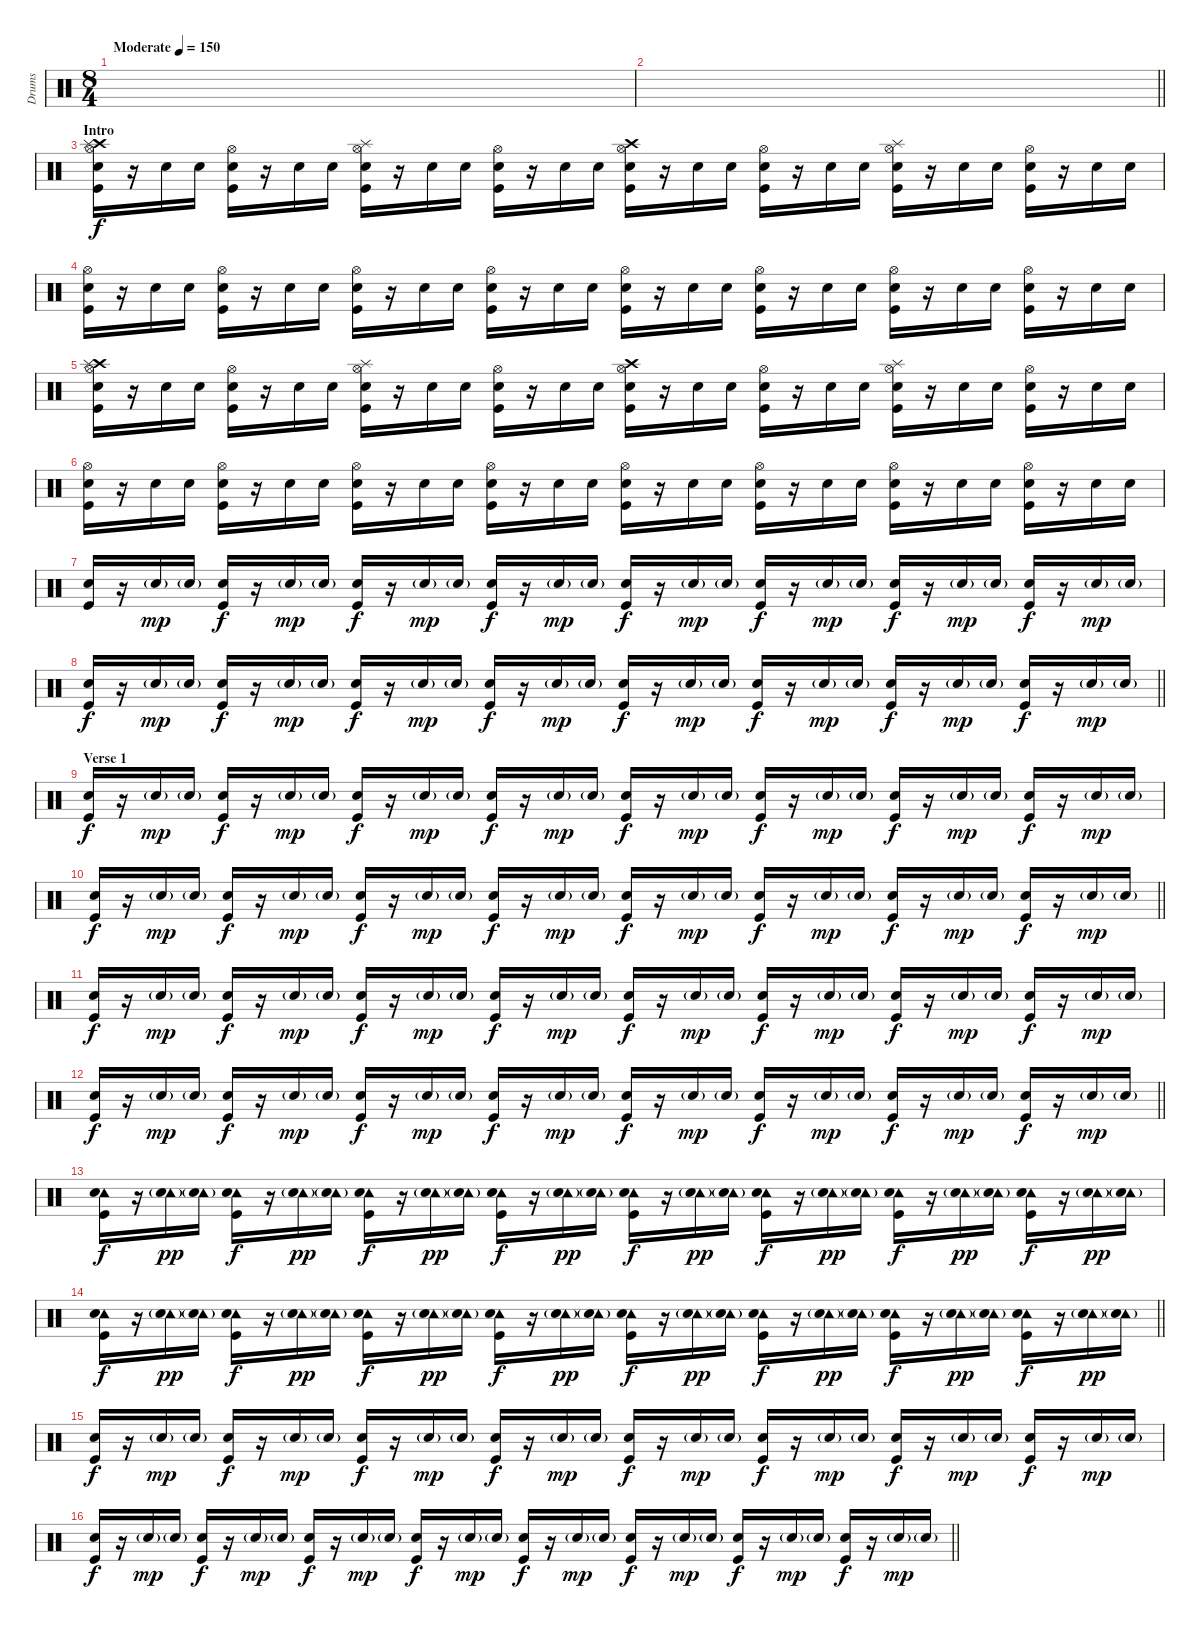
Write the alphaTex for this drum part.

\track ("Drums" "Drums") {instrument percussion}
\staff {score}
\articulation defaults
\ts (8 4)
\tempo (150 "Moderate")
\clef neutral
\ks c
|
\barLineRight lightlight
|
\section ("" "Intro")
("Crash high (hit)" "Splash (hit)" "Hi-Hat (open)" "Electric Snare (hit)" "Kick (hit)").16 r.16 "Electric Snare (hit)".16 "Electric Snare (hit)".16 ("Hi-Hat (open)" "Electric Snare (hit)" "Kick (hit)").16 r.16 "Electric Snare (hit)".16 "Electric Snare (hit)".16 ("Splash (hit)" "Hi-Hat (open)" "Electric Snare (hit)" "Kick (hit)").16 r.16 "Electric Snare (hit)".16 "Electric Snare (hit)".16 ("Hi-Hat (open)" "Electric Snare (hit)" "Kick (hit)").16 r.16 "Electric Snare (hit)".16 "Electric Snare (hit)".16 ("Crash high (hit)" "Hi-Hat (open)" "Electric Snare (hit)" "Kick (hit)").16 r.16 "Electric Snare (hit)".16 "Electric Snare (hit)".16 ("Hi-Hat (open)" "Electric Snare (hit)" "Kick (hit)").16 r.16 "Electric Snare (hit)".16 "Electric Snare (hit)".16 ("Splash (hit)" "Hi-Hat (open)" "Electric Snare (hit)" "Kick (hit)").16 r.16 "Electric Snare (hit)".16 "Electric Snare (hit)".16 ("Hi-Hat (open)" "Electric Snare (hit)" "Kick (hit)").16 r.16 "Electric Snare (hit)".16 "Electric Snare (hit)".16 |
("Hi-Hat (open)" "Electric Snare (hit)" "Kick (hit)").16 r.16 "Electric Snare (hit)".16 "Electric Snare (hit)".16 ("Hi-Hat (open)" "Electric Snare (hit)" "Kick (hit)").16 r.16 "Electric Snare (hit)".16 "Electric Snare (hit)".16 ("Hi-Hat (open)" "Electric Snare (hit)" "Kick (hit)").16 r.16 "Electric Snare (hit)".16 "Electric Snare (hit)".16 ("Hi-Hat (open)" "Electric Snare (hit)" "Kick (hit)").16 r.16 "Electric Snare (hit)".16 "Electric Snare (hit)".16 ("Hi-Hat (open)" "Electric Snare (hit)" "Kick (hit)").16 r.16 "Electric Snare (hit)".16 "Electric Snare (hit)".16 ("Hi-Hat (open)" "Electric Snare (hit)" "Kick (hit)").16 r.16 "Electric Snare (hit)".16 "Electric Snare (hit)".16 ("Hi-Hat (open)" "Electric Snare (hit)" "Kick (hit)").16 r.16 "Electric Snare (hit)".16 "Electric Snare (hit)".16 ("Hi-Hat (open)" "Electric Snare (hit)" "Kick (hit)").16 r.16 "Electric Snare (hit)".16 "Electric Snare (hit)".16 |
("Crash high (hit)" "Splash (hit)" "Hi-Hat (open)" "Electric Snare (hit)" "Kick (hit)").16 r.16 "Electric Snare (hit)".16 "Electric Snare (hit)".16 ("Hi-Hat (open)" "Electric Snare (hit)" "Kick (hit)").16 r.16 "Electric Snare (hit)".16 "Electric Snare (hit)".16 ("Splash (hit)" "Hi-Hat (open)" "Electric Snare (hit)" "Kick (hit)").16 r.16 "Electric Snare (hit)".16 "Electric Snare (hit)".16 ("Hi-Hat (open)" "Electric Snare (hit)" "Kick (hit)").16 r.16 "Electric Snare (hit)".16 "Electric Snare (hit)".16 ("Crash high (hit)" "Hi-Hat (open)" "Electric Snare (hit)" "Kick (hit)").16 r.16 "Electric Snare (hit)".16 "Electric Snare (hit)".16 ("Hi-Hat (open)" "Electric Snare (hit)" "Kick (hit)").16 r.16 "Electric Snare (hit)".16 "Electric Snare (hit)".16 ("Splash (hit)" "Hi-Hat (open)" "Electric Snare (hit)" "Kick (hit)").16 r.16 "Electric Snare (hit)".16 "Electric Snare (hit)".16 ("Hi-Hat (open)" "Electric Snare (hit)" "Kick (hit)").16 r.16 "Electric Snare (hit)".16 "Electric Snare (hit)".16 |
("Hi-Hat (open)" "Electric Snare (hit)" "Kick (hit)").16 r.16 "Electric Snare (hit)".16 "Electric Snare (hit)".16 ("Hi-Hat (open)" "Electric Snare (hit)" "Kick (hit)").16 r.16 "Electric Snare (hit)".16 "Electric Snare (hit)".16 ("Hi-Hat (open)" "Electric Snare (hit)" "Kick (hit)").16 r.16 "Electric Snare (hit)".16 "Electric Snare (hit)".16 ("Hi-Hat (open)" "Electric Snare (hit)" "Kick (hit)").16 r.16 "Electric Snare (hit)".16 "Electric Snare (hit)".16 ("Hi-Hat (open)" "Electric Snare (hit)" "Kick (hit)").16 r.16 "Electric Snare (hit)".16 "Electric Snare (hit)".16 ("Hi-Hat (open)" "Electric Snare (hit)" "Kick (hit)").16 r.16 "Electric Snare (hit)".16 "Electric Snare (hit)".16 ("Hi-Hat (open)" "Electric Snare (hit)" "Kick (hit)").16 r.16 "Electric Snare (hit)".16 "Electric Snare (hit)".16 ("Hi-Hat (open)" "Electric Snare (hit)" "Kick (hit)").16 r.16 "Electric Snare (hit)".16 "Electric Snare (hit)".16 |
("Electric Snare (hit)" "Kick (hit)").16 r.16 "Electric Snare (hit)"{g}.16{dy mp} "Electric Snare (hit)"{g}.16 ("Electric Snare (hit)" "Kick (hit)").16{dy f} r.16 "Electric Snare (hit)"{g}.16{dy mp} "Electric Snare (hit)"{g}.16 ("Electric Snare (hit)" "Kick (hit)").16{dy f} r.16 "Electric Snare (hit)"{g}.16{dy mp} "Electric Snare (hit)"{g}.16 ("Electric Snare (hit)" "Kick (hit)").16{dy f} r.16 "Electric Snare (hit)"{g}.16{dy mp} "Electric Snare (hit)"{g}.16 ("Electric Snare (hit)" "Kick (hit)").16{dy f} r.16 "Electric Snare (hit)"{g}.16{dy mp} "Electric Snare (hit)"{g}.16 ("Electric Snare (hit)" "Kick (hit)").16{dy f} r.16 "Electric Snare (hit)"{g}.16{dy mp} "Electric Snare (hit)"{g}.16 ("Electric Snare (hit)" "Kick (hit)").16{dy f} r.16 "Electric Snare (hit)"{g}.16{dy mp} "Electric Snare (hit)"{g}.16 ("Electric Snare (hit)" "Kick (hit)").16{dy f} r.16 "Electric Snare (hit)"{g}.16{dy mp} "Electric Snare (hit)"{g}.16 |
\barLineRight lightlight
("Electric Snare (hit)" "Kick (hit)").16{dy f} r.16 "Electric Snare (hit)"{g}.16{dy mp} "Electric Snare (hit)"{g}.16 ("Electric Snare (hit)" "Kick (hit)").16{dy f} r.16 "Electric Snare (hit)"{g}.16{dy mp} "Electric Snare (hit)"{g}.16 ("Electric Snare (hit)" "Kick (hit)").16{dy f} r.16 "Electric Snare (hit)"{g}.16{dy mp} "Electric Snare (hit)"{g}.16 ("Electric Snare (hit)" "Kick (hit)").16{dy f} r.16 "Electric Snare (hit)"{g}.16{dy mp} "Electric Snare (hit)"{g}.16 ("Electric Snare (hit)" "Kick (hit)").16{dy f} r.16 "Electric Snare (hit)"{g}.16{dy mp} "Electric Snare (hit)"{g}.16 ("Electric Snare (hit)" "Kick (hit)").16{dy f} r.16 "Electric Snare (hit)"{g}.16{dy mp} "Electric Snare (hit)"{g}.16 ("Electric Snare (hit)" "Kick (hit)").16{dy f} r.16 "Electric Snare (hit)"{g}.16{dy mp} "Electric Snare (hit)"{g}.16 ("Electric Snare (hit)" "Kick (hit)").16{dy f} r.16 "Electric Snare (hit)"{g}.16{dy mp} "Electric Snare (hit)"{g}.16 |
\section ("" "Verse 1")
("Electric Snare (hit)" "Kick (hit)").16{dy f} r.16 "Electric Snare (hit)"{g}.16{dy mp} "Electric Snare (hit)"{g}.16 ("Electric Snare (hit)" "Kick (hit)").16{dy f} r.16 "Electric Snare (hit)"{g}.16{dy mp} "Electric Snare (hit)"{g}.16 ("Electric Snare (hit)" "Kick (hit)").16{dy f} r.16 "Electric Snare (hit)"{g}.16{dy mp} "Electric Snare (hit)"{g}.16 ("Electric Snare (hit)" "Kick (hit)").16{dy f} r.16 "Electric Snare (hit)"{g}.16{dy mp} "Electric Snare (hit)"{g}.16 ("Electric Snare (hit)" "Kick (hit)").16{dy f} r.16 "Electric Snare (hit)"{g}.16{dy mp} "Electric Snare (hit)"{g}.16 ("Electric Snare (hit)" "Kick (hit)").16{dy f} r.16 "Electric Snare (hit)"{g}.16{dy mp} "Electric Snare (hit)"{g}.16 ("Electric Snare (hit)" "Kick (hit)").16{dy f} r.16 "Electric Snare (hit)"{g}.16{dy mp} "Electric Snare (hit)"{g}.16 ("Electric Snare (hit)" "Kick (hit)").16{dy f} r.16 "Electric Snare (hit)"{g}.16{dy mp} "Electric Snare (hit)"{g}.16 |
\barLineRight lightlight
("Electric Snare (hit)" "Kick (hit)").16{dy f} r.16 "Electric Snare (hit)"{g}.16{dy mp} "Electric Snare (hit)"{g}.16 ("Electric Snare (hit)" "Kick (hit)").16{dy f} r.16 "Electric Snare (hit)"{g}.16{dy mp} "Electric Snare (hit)"{g}.16 ("Electric Snare (hit)" "Kick (hit)").16{dy f} r.16 "Electric Snare (hit)"{g}.16{dy mp} "Electric Snare (hit)"{g}.16 ("Electric Snare (hit)" "Kick (hit)").16{dy f} r.16 "Electric Snare (hit)"{g}.16{dy mp} "Electric Snare (hit)"{g}.16 ("Electric Snare (hit)" "Kick (hit)").16{dy f} r.16 "Electric Snare (hit)"{g}.16{dy mp} "Electric Snare (hit)"{g}.16 ("Electric Snare (hit)" "Kick (hit)").16{dy f} r.16 "Electric Snare (hit)"{g}.16{dy mp} "Electric Snare (hit)"{g}.16 ("Electric Snare (hit)" "Kick (hit)").16{dy f} r.16 "Electric Snare (hit)"{g}.16{dy mp} "Electric Snare (hit)"{g}.16 ("Electric Snare (hit)" "Kick (hit)").16{dy f} r.16 "Electric Snare (hit)"{g}.16{dy mp} "Electric Snare (hit)"{g}.16 |
("Electric Snare (hit)" "Kick (hit)").16{dy f} r.16 "Electric Snare (hit)"{g}.16{dy mp} "Electric Snare (hit)"{g}.16 ("Electric Snare (hit)" "Kick (hit)").16{dy f} r.16 "Electric Snare (hit)"{g}.16{dy mp} "Electric Snare (hit)"{g}.16 ("Electric Snare (hit)" "Kick (hit)").16{dy f} r.16 "Electric Snare (hit)"{g}.16{dy mp} "Electric Snare (hit)"{g}.16 ("Electric Snare (hit)" "Kick (hit)").16{dy f} r.16 "Electric Snare (hit)"{g}.16{dy mp} "Electric Snare (hit)"{g}.16 ("Electric Snare (hit)" "Kick (hit)").16{dy f} r.16 "Electric Snare (hit)"{g}.16{dy mp} "Electric Snare (hit)"{g}.16 ("Electric Snare (hit)" "Kick (hit)").16{dy f} r.16 "Electric Snare (hit)"{g}.16{dy mp} "Electric Snare (hit)"{g}.16 ("Electric Snare (hit)" "Kick (hit)").16{dy f} r.16 "Electric Snare (hit)"{g}.16{dy mp} "Electric Snare (hit)"{g}.16 ("Electric Snare (hit)" "Kick (hit)").16{dy f} r.16 "Electric Snare (hit)"{g}.16{dy mp} "Electric Snare (hit)"{g}.16 |
\barLineRight lightlight
("Electric Snare (hit)" "Kick (hit)").16{dy f} r.16 "Electric Snare (hit)"{g}.16{dy mp} "Electric Snare (hit)"{g}.16 ("Electric Snare (hit)" "Kick (hit)").16{dy f} r.16 "Electric Snare (hit)"{g}.16{dy mp} "Electric Snare (hit)"{g}.16 ("Electric Snare (hit)" "Kick (hit)").16{dy f} r.16 "Electric Snare (hit)"{g}.16{dy mp} "Electric Snare (hit)"{g}.16 ("Electric Snare (hit)" "Kick (hit)").16{dy f} r.16 "Electric Snare (hit)"{g}.16{dy mp} "Electric Snare (hit)"{g}.16 ("Electric Snare (hit)" "Kick (hit)").16{dy f} r.16 "Electric Snare (hit)"{g}.16{dy mp} "Electric Snare (hit)"{g}.16 ("Electric Snare (hit)" "Kick (hit)").16{dy f} r.16 "Electric Snare (hit)"{g}.16{dy mp} "Electric Snare (hit)"{g}.16 ("Electric Snare (hit)" "Kick (hit)").16{dy f} r.16 "Electric Snare (hit)"{g}.16{dy mp} "Electric Snare (hit)"{g}.16 ("Electric Snare (hit)" "Kick (hit)").16{dy f} r.16 "Electric Snare (hit)"{g}.16{dy mp} "Electric Snare (hit)"{g}.16 |
("Tambourine (hit)" "Electric Snare (hit)" "Kick (hit)").16{dy f} r.16 ("Tambourine (hit)"{g} "Electric Snare (hit)"{g}).16{dy pp} ("Tambourine (hit)"{g} "Electric Snare (hit)"{g}).16 ("Tambourine (hit)" "Electric Snare (hit)" "Kick (hit)").16{dy f} r.16 ("Tambourine (hit)"{g} "Electric Snare (hit)"{g}).16{dy pp} ("Tambourine (hit)"{g} "Electric Snare (hit)"{g}).16 ("Tambourine (hit)" "Electric Snare (hit)" "Kick (hit)").16{dy f} r.16 ("Tambourine (hit)"{g} "Electric Snare (hit)"{g}).16{dy pp} ("Tambourine (hit)"{g} "Electric Snare (hit)"{g}).16 ("Tambourine (hit)" "Electric Snare (hit)" "Kick (hit)").16{dy f} r.16 ("Tambourine (hit)"{g} "Electric Snare (hit)"{g}).16{dy pp} ("Tambourine (hit)"{g} "Electric Snare (hit)"{g}).16 ("Tambourine (hit)" "Electric Snare (hit)" "Kick (hit)").16{dy f} r.16 ("Tambourine (hit)"{g} "Electric Snare (hit)"{g}).16{dy pp} ("Tambourine (hit)"{g} "Electric Snare (hit)"{g}).16 ("Tambourine (hit)" "Electric Snare (hit)" "Kick (hit)").16{dy f} r.16 ("Tambourine (hit)"{g} "Electric Snare (hit)"{g}).16{dy pp} ("Tambourine (hit)"{g} "Electric Snare (hit)"{g}).16 ("Tambourine (hit)" "Electric Snare (hit)" "Kick (hit)").16{dy f} r.16 ("Tambourine (hit)"{g} "Electric Snare (hit)"{g}).16{dy pp} ("Tambourine (hit)"{g} "Electric Snare (hit)"{g}).16 ("Tambourine (hit)" "Electric Snare (hit)" "Kick (hit)").16{dy f} r.16 ("Tambourine (hit)"{g} "Electric Snare (hit)"{g}).16{dy pp} ("Tambourine (hit)"{g} "Electric Snare (hit)"{g}).16 |
\barLineRight lightlight
("Tambourine (hit)" "Electric Snare (hit)" "Kick (hit)").16{dy f} r.16 ("Tambourine (hit)"{g} "Electric Snare (hit)"{g}).16{dy pp} ("Tambourine (hit)"{g} "Electric Snare (hit)"{g}).16 ("Tambourine (hit)" "Electric Snare (hit)" "Kick (hit)").16{dy f} r.16 ("Tambourine (hit)"{g} "Electric Snare (hit)"{g}).16{dy pp} ("Tambourine (hit)"{g} "Electric Snare (hit)"{g}).16 ("Tambourine (hit)" "Electric Snare (hit)" "Kick (hit)").16{dy f} r.16 ("Tambourine (hit)"{g} "Electric Snare (hit)"{g}).16{dy pp} ("Tambourine (hit)"{g} "Electric Snare (hit)"{g}).16 ("Tambourine (hit)" "Electric Snare (hit)" "Kick (hit)").16{dy f} r.16 ("Tambourine (hit)"{g} "Electric Snare (hit)"{g}).16{dy pp} ("Tambourine (hit)"{g} "Electric Snare (hit)"{g}).16 ("Tambourine (hit)" "Electric Snare (hit)" "Kick (hit)").16{dy f} r.16 ("Tambourine (hit)"{g} "Electric Snare (hit)"{g}).16{dy pp} ("Tambourine (hit)"{g} "Electric Snare (hit)"{g}).16 ("Tambourine (hit)" "Electric Snare (hit)" "Kick (hit)").16{dy f} r.16 ("Tambourine (hit)"{g} "Electric Snare (hit)"{g}).16{dy pp} ("Tambourine (hit)"{g} "Electric Snare (hit)"{g}).16 ("Tambourine (hit)" "Electric Snare (hit)" "Kick (hit)").16{dy f} r.16 ("Tambourine (hit)"{g} "Electric Snare (hit)"{g}).16{dy pp} ("Tambourine (hit)"{g} "Electric Snare (hit)"{g}).16 ("Tambourine (hit)" "Electric Snare (hit)" "Kick (hit)").16{dy f} r.16 ("Tambourine (hit)"{g} "Electric Snare (hit)"{g}).16{dy pp} ("Tambourine (hit)"{g} "Electric Snare (hit)"{g}).16 |
("Electric Snare (hit)" "Kick (hit)").16{dy f} r.16 "Electric Snare (hit)"{g}.16{dy mp} "Electric Snare (hit)"{g}.16 ("Electric Snare (hit)" "Kick (hit)").16{dy f} r.16 "Electric Snare (hit)"{g}.16{dy mp} "Electric Snare (hit)"{g}.16 ("Electric Snare (hit)" "Kick (hit)").16{dy f} r.16 "Electric Snare (hit)"{g}.16{dy mp} "Electric Snare (hit)"{g}.16 ("Electric Snare (hit)" "Kick (hit)").16{dy f} r.16 "Electric Snare (hit)"{g}.16{dy mp} "Electric Snare (hit)"{g}.16 ("Electric Snare (hit)" "Kick (hit)").16{dy f} r.16 "Electric Snare (hit)"{g}.16{dy mp} "Electric Snare (hit)"{g}.16 ("Electric Snare (hit)" "Kick (hit)").16{dy f} r.16 "Electric Snare (hit)"{g}.16{dy mp} "Electric Snare (hit)"{g}.16 ("Electric Snare (hit)" "Kick (hit)").16{dy f} r.16 "Electric Snare (hit)"{g}.16{dy mp} "Electric Snare (hit)"{g}.16 ("Electric Snare (hit)" "Kick (hit)").16{dy f} r.16 "Electric Snare (hit)"{g}.16{dy mp} "Electric Snare (hit)"{g}.16 |
\barLineRight lightlight
("Electric Snare (hit)" "Kick (hit)").16{dy f} r.16 "Electric Snare (hit)"{g}.16{dy mp} "Electric Snare (hit)"{g}.16 ("Electric Snare (hit)" "Kick (hit)").16{dy f} r.16 "Electric Snare (hit)"{g}.16{dy mp} "Electric Snare (hit)"{g}.16 ("Electric Snare (hit)" "Kick (hit)").16{dy f} r.16 "Electric Snare (hit)"{g}.16{dy mp} "Electric Snare (hit)"{g}.16 ("Electric Snare (hit)" "Kick (hit)").16{dy f} r.16 "Electric Snare (hit)"{g}.16{dy mp} "Electric Snare (hit)"{g}.16 ("Electric Snare (hit)" "Kick (hit)").16{dy f} r.16 "Electric Snare (hit)"{g}.16{dy mp} "Electric Snare (hit)"{g}.16 ("Electric Snare (hit)" "Kick (hit)").16{dy f} r.16 "Electric Snare (hit)"{g}.16{dy mp} "Electric Snare (hit)"{g}.16 ("Electric Snare (hit)" "Kick (hit)").16{dy f} r.16 "Electric Snare (hit)"{g}.16{dy mp} "Electric Snare (hit)"{g}.16 ("Electric Snare (hit)" "Kick (hit)").16{dy f} r.16 "Electric Snare (hit)"{g}.16{dy mp} "Electric Snare (hit)"{g}.16
